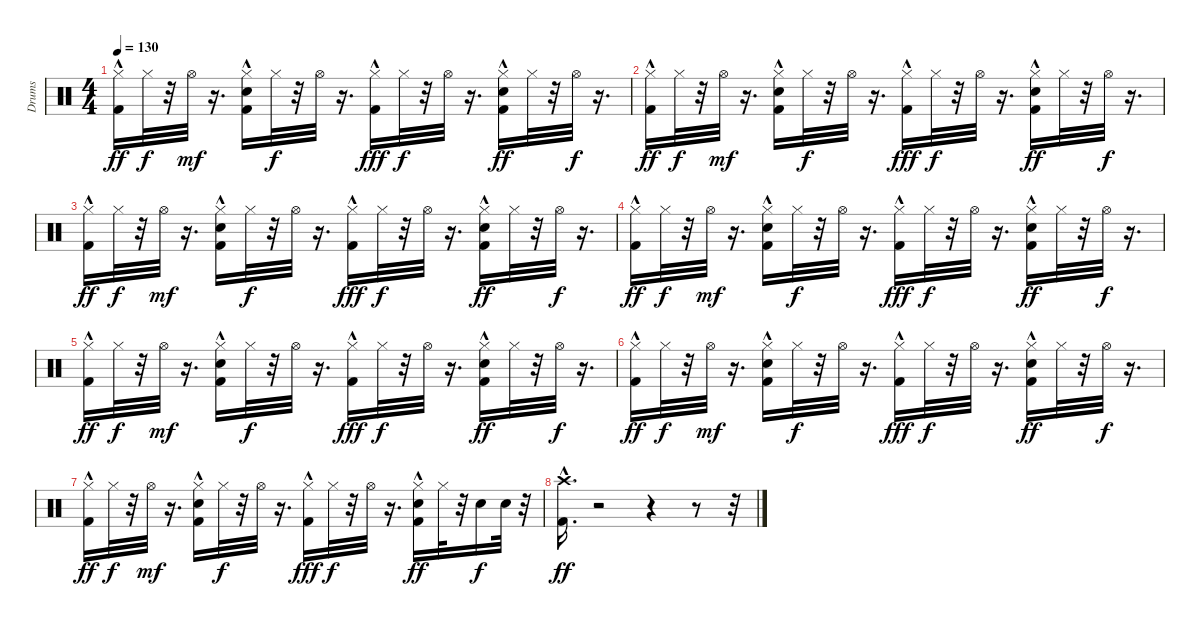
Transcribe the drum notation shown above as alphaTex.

\track ("Drums" "Drums") {instrument percussion}
\staff {score}
\articulation defaults
\ts (4 4)
\tempo 130
\clef neutral
\ks c
("Kick (hit) 2"{hac} "Hi-Hat (closed)").16{dy ff} "Hi-Hat (closed)".32{dy f} r.32 "Hi-Hat (open)".32{dy mf} r.16{d} ("Kick (hit) 2"{hac} "Electric Snare (hit)" "Hi-Hat (closed)").16 "Hi-Hat (closed)".32{dy f} r.32 "Hi-Hat (open)".32 r.16{d} ("Kick (hit) 2"{hac} "Hi-Hat (closed)").16{dy fff} "Hi-Hat (closed)".32{dy f} r.32 "Hi-Hat (open)".32 r.16{d} ("Kick (hit) 2"{hac} "Electric Snare (hit)" "Hi-Hat (closed)").16{dy ff} "Hi-Hat (closed)".32 r.32 "Hi-Hat (open)".32{dy f} r.16{d} |
("Kick (hit) 2"{hac} "Hi-Hat (closed)").16{dy ff} "Hi-Hat (closed)".32{dy f} r.32 "Hi-Hat (open)".32{dy mf} r.16{d} ("Kick (hit) 2"{hac} "Electric Snare (hit)" "Hi-Hat (closed)").16 "Hi-Hat (closed)".32{dy f} r.32 "Hi-Hat (open)".32 r.16{d} ("Kick (hit) 2"{hac} "Hi-Hat (closed)").16{dy fff} "Hi-Hat (closed)".32{dy f} r.32 "Hi-Hat (open)".32 r.16{d} ("Kick (hit) 2"{hac} "Electric Snare (hit)" "Hi-Hat (closed)").16{dy ff} "Hi-Hat (closed)".32 r.32 "Hi-Hat (open)".32{dy f} r.16{d} |
("Kick (hit) 2"{hac} "Hi-Hat (closed)").16{dy ff} "Hi-Hat (closed)".32{dy f} r.32 "Hi-Hat (open)".32{dy mf} r.16{d} ("Kick (hit) 2"{hac} "Electric Snare (hit)" "Hi-Hat (closed)").16 "Hi-Hat (closed)".32{dy f} r.32 "Hi-Hat (open)".32 r.16{d} ("Kick (hit) 2"{hac} "Hi-Hat (closed)").16{dy fff} "Hi-Hat (closed)".32{dy f} r.32 "Hi-Hat (open)".32 r.16{d} ("Kick (hit) 2"{hac} "Electric Snare (hit)" "Hi-Hat (closed)").16{dy ff} "Hi-Hat (closed)".32 r.32 "Hi-Hat (open)".32{dy f} r.16{d} |
("Kick (hit) 2"{hac} "Hi-Hat (closed)").16{dy ff} "Hi-Hat (closed)".32{dy f} r.32 "Hi-Hat (open)".32{dy mf} r.16{d} ("Kick (hit) 2"{hac} "Electric Snare (hit)" "Hi-Hat (closed)").16 "Hi-Hat (closed)".32{dy f} r.32 "Hi-Hat (open)".32 r.16{d} ("Kick (hit) 2"{hac} "Hi-Hat (closed)").16{dy fff} "Hi-Hat (closed)".32{dy f} r.32 "Hi-Hat (open)".32 r.16{d} ("Kick (hit) 2"{hac} "Electric Snare (hit)" "Hi-Hat (closed)").16{dy ff} "Hi-Hat (closed)".32 r.32 "Hi-Hat (open)".32{dy f} r.16{d} |
("Kick (hit) 2"{hac} "Hi-Hat (closed)").16{dy ff} "Hi-Hat (closed)".32{dy f} r.32 "Hi-Hat (open)".32{dy mf} r.16{d} ("Kick (hit) 2"{hac} "Electric Snare (hit)" "Hi-Hat (closed)").16 "Hi-Hat (closed)".32{dy f} r.32 "Hi-Hat (open)".32 r.16{d} ("Kick (hit) 2"{hac} "Hi-Hat (closed)").16{dy fff} "Hi-Hat (closed)".32{dy f} r.32 "Hi-Hat (open)".32 r.16{d} ("Kick (hit) 2"{hac} "Electric Snare (hit)" "Hi-Hat (closed)").16{dy ff} "Hi-Hat (closed)".32 r.32 "Hi-Hat (open)".32{dy f} r.16{d} |
("Kick (hit) 2"{hac} "Hi-Hat (closed)").16{dy ff} "Hi-Hat (closed)".32{dy f} r.32 "Hi-Hat (open)".32{dy mf} r.16{d} ("Kick (hit) 2"{hac} "Electric Snare (hit)" "Hi-Hat (closed)").16 "Hi-Hat (closed)".32{dy f} r.32 "Hi-Hat (open)".32 r.16{d} ("Kick (hit) 2"{hac} "Hi-Hat (closed)").16{dy fff} "Hi-Hat (closed)".32{dy f} r.32 "Hi-Hat (open)".32 r.16{d} ("Kick (hit) 2"{hac} "Electric Snare (hit)" "Hi-Hat (closed)").16{dy ff} "Hi-Hat (closed)".32 r.32 "Hi-Hat (open)".32{dy f} r.16{d} |
("Kick (hit) 2"{hac} "Hi-Hat (closed)").16{dy ff} "Hi-Hat (closed)".32{dy f} r.32 "Hi-Hat (open)".32{dy mf} r.16{d} ("Kick (hit) 2"{hac} "Electric Snare (hit)" "Hi-Hat (closed)").16 "Hi-Hat (closed)".32{dy f} r.32 "Hi-Hat (open)".32 r.16{d} ("Kick (hit) 2"{hac} "Hi-Hat (closed)").16{dy fff} "Hi-Hat (closed)".32{dy f} r.32 "Hi-Hat (open)".32 r.16{d} ("Kick (hit) 2"{hac} "Electric Snare (hit)" "Hi-Hat (closed)").16{dy ff} "Hi-Hat (closed)".32 r.32 "Electric Snare (hit)".16{dy f} "Electric Snare (hit)".32 r.32 |
("Kick (hit) 2"{hac} "Crash high (hit)").16{d dy ff} r.2 r.4 r.8 r.32
